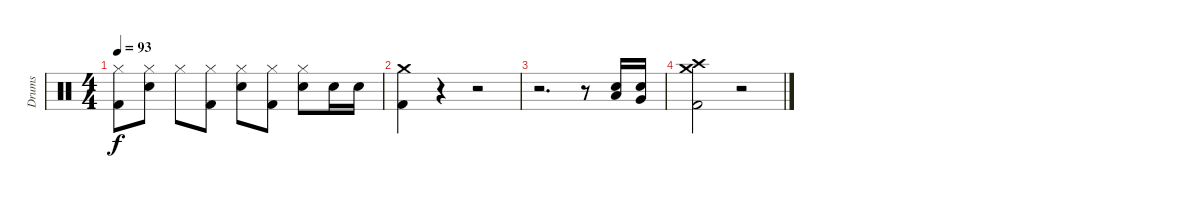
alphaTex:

\track ("Drums" "Drums") {instrument percussion}
\staff {score}
\articulation defaults
\ts (4 4)
\tempo 93
\clef neutral
\ks c
("Hi-Hat (closed)" "Kick (hit) 2").8{dy f} ("Hi-Hat (closed)" "Electric Snare (hit)").8 "Hi-Hat (closed)".8 ("Hi-Hat (closed)" "Kick (hit) 2").8 ("Hi-Hat (closed)" "Electric Snare (hit)").8 ("Hi-Hat (closed)" "Kick (hit) 2").8 ("Hi-Hat (closed)" "Electric Snare (hit)").8 "Electric Snare (hit)".16 "Electric Snare (hit)".16 |
("Crash medium (hit)" "Kick (hit) 2").4 r.4 r.2 |
r.2{d} r.8 ("Electric Snare (hit)" "Low Tom (hit)").16 ("Electric Snare (hit)" "Very Low Tom (hit)").16 |
("Crash high (hit)" "Crash medium (hit)" "Kick (hit) 2").2 r.2
